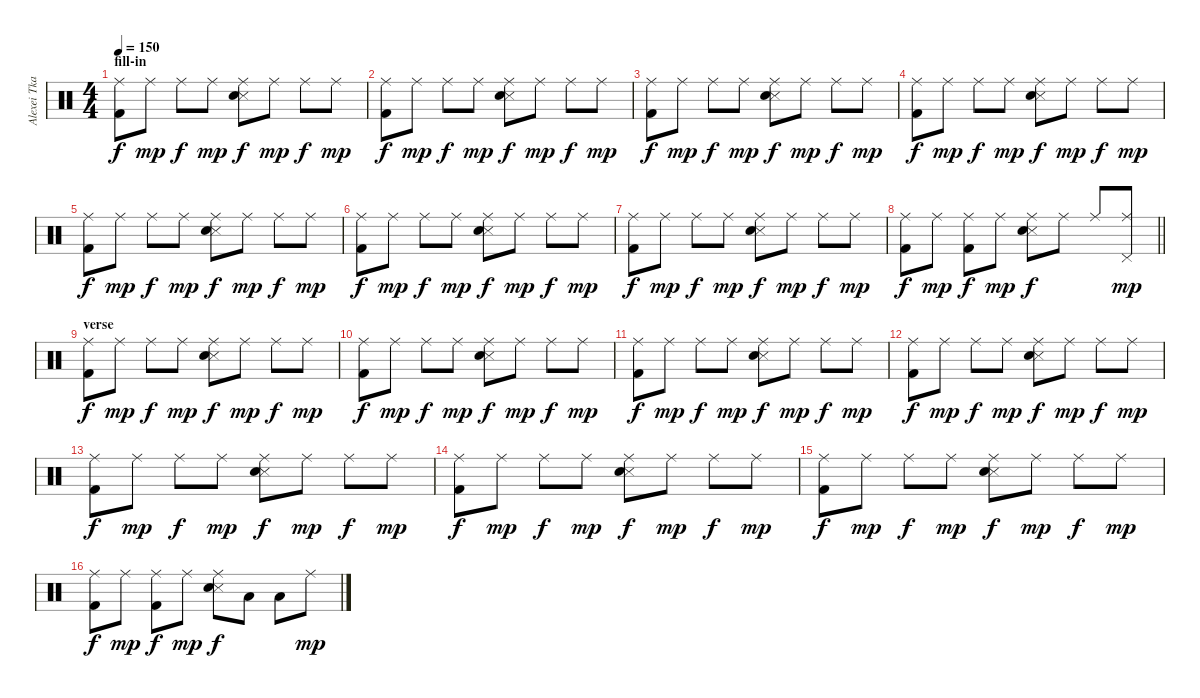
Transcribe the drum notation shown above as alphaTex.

\track ("Alexei Tkachevskiy " "Alexei Tka") {instrument percussion}
\staff {score}
\articulation defaults
\ts (4 4)
\section ("" "fill-in")
\tempo 150
\clef neutral
\ks c
("Ride (middle)" "Kick (hit) 2").8{dy f} "Ride (middle)".8{dy mp} "Ride (middle)".8{dy f} "Ride (middle)".8{dy mp} ("Ride (middle)" "Snare (side stick) 3" "Snare (hit) 2").8{dy f} "Ride (middle)".8{dy mp} "Ride (middle)".8{dy f} "Ride (middle)".8{dy mp} |
("Ride (middle)" "Kick (hit) 2").8{dy f} "Ride (middle)".8{dy mp} "Ride (middle)".8{dy f} "Ride (middle)".8{dy mp} ("Ride (middle)" "Snare (side stick) 3" "Snare (hit) 2").8{dy f} "Ride (middle)".8{dy mp} "Ride (middle)".8{dy f} "Ride (middle)".8{dy mp} |
("Ride (middle)" "Kick (hit) 2").8{dy f} "Ride (middle)".8{dy mp} "Ride (middle)".8{dy f} "Ride (middle)".8{dy mp} ("Ride (middle)" "Snare (side stick) 3" "Snare (hit) 2").8{dy f} "Ride (middle)".8{dy mp} "Ride (middle)".8{dy f} "Ride (middle)".8{dy mp} |
("Ride (middle)" "Kick (hit) 2").8{dy f} "Ride (middle)".8{dy mp} "Ride (middle)".8{dy f} "Ride (middle)".8{dy mp} ("Ride (middle)" "Snare (side stick) 3" "Snare (hit) 2").8{dy f} "Ride (middle)".8{dy mp} "Ride (middle)".8{dy f} "Ride (middle)".8{dy mp} |
("Ride (middle)" "Kick (hit) 2").8{dy f} "Ride (middle)".8{dy mp} "Ride (middle)".8{dy f} "Ride (middle)".8{dy mp} ("Ride (middle)" "Snare (side stick) 3" "Snare (hit) 2").8{dy f} "Ride (middle)".8{dy mp} "Ride (middle)".8{dy f} "Ride (middle)".8{dy mp} |
("Ride (middle)" "Kick (hit) 2").8{dy f} "Ride (middle)".8{dy mp} "Ride (middle)".8{dy f} "Ride (middle)".8{dy mp} ("Ride (middle)" "Snare (side stick) 3" "Snare (hit) 2").8{dy f} "Ride (middle)".8{dy mp} "Ride (middle)".8{dy f} "Ride (middle)".8{dy mp} |
("Ride (middle)" "Kick (hit) 2").8{dy f} "Ride (middle)".8{dy mp} "Ride (middle)".8{dy f} "Ride (middle)".8{dy mp} ("Ride (middle)" "Snare (side stick) 3" "Snare (hit) 2").8{dy f} "Ride (middle)".8{dy mp} "Ride (middle)".8{dy f} "Ride (middle)".8{dy mp} |
\barLineRight lightlight
("Ride (middle)" "Kick (hit) 2").8{dy f} "Ride (middle)".8{dy mp} ("Ride (middle)" "Kick (hit) 2").8{dy f} "Ride (middle)".8{dy mp} ("Ride (middle)" "Snare (side stick) 3" "Snare (hit) 2").8{dy f} "Ride (middle)".8 "Ride (middle)".8 ("Ride (middle)" "Pedal Hi-Hat (hit)").8{dy mp} |
\section ("" "verse")
("Ride (middle)" "Kick (hit) 2").8{dy f} "Ride (middle)".8{dy mp} "Ride (middle)".8{dy f} "Ride (middle)".8{dy mp} ("Ride (middle)" "Snare (side stick) 3" "Snare (hit) 2").8{dy f} "Ride (middle)".8{dy mp} "Ride (middle)".8{dy f} "Ride (middle)".8{dy mp} |
("Ride (middle)" "Kick (hit) 2").8{dy f} "Ride (middle)".8{dy mp} "Ride (middle)".8{dy f} "Ride (middle)".8{dy mp} ("Ride (middle)" "Snare (side stick) 3" "Snare (hit) 2").8{dy f} "Ride (middle)".8{dy mp} "Ride (middle)".8{dy f} "Ride (middle)".8{dy mp} |
("Ride (middle)" "Kick (hit) 2").8{dy f} "Ride (middle)".8{dy mp} "Ride (middle)".8{dy f} "Ride (middle)".8{dy mp} ("Ride (middle)" "Snare (side stick) 3" "Snare (hit) 2").8{dy f} "Ride (middle)".8{dy mp} "Ride (middle)".8{dy f} "Ride (middle)".8{dy mp} |
("Ride (middle)" "Kick (hit) 2").8{dy f} "Ride (middle)".8{dy mp} "Ride (middle)".8{dy f} "Ride (middle)".8{dy mp} ("Ride (middle)" "Snare (side stick) 3" "Snare (hit) 2").8{dy f} "Ride (middle)".8{dy mp} "Ride (middle)".8{dy f} "Ride (middle)".8{dy mp} |
("Ride (middle)" "Kick (hit) 2").8{dy f} "Ride (middle)".8{dy mp} "Ride (middle)".8{dy f} "Ride (middle)".8{dy mp} ("Ride (middle)" "Snare (side stick) 3" "Snare (hit) 2").8{dy f} "Ride (middle)".8{dy mp} "Ride (middle)".8{dy f} "Ride (middle)".8{dy mp} |
("Ride (middle)" "Kick (hit) 2").8{dy f} "Ride (middle)".8{dy mp} "Ride (middle)".8{dy f} "Ride (middle)".8{dy mp} ("Ride (middle)" "Snare (side stick) 3" "Snare (hit) 2").8{dy f} "Ride (middle)".8{dy mp} "Ride (middle)".8{dy f} "Ride (middle)".8{dy mp} |
("Ride (middle)" "Kick (hit) 2").8{dy f} "Ride (middle)".8{dy mp} "Ride (middle)".8{dy f} "Ride (middle)".8{dy mp} ("Ride (middle)" "Snare (side stick) 3" "Snare (hit) 2").8{dy f} "Ride (middle)".8{dy mp} "Ride (middle)".8{dy f} "Ride (middle)".8{dy mp} |
("Ride (middle)" "Kick (hit) 2").8{dy f} "Ride (middle)".8{dy mp} ("Ride (middle)" "Kick (hit) 2").8{dy f} "Ride (middle)".8{dy mp} ("Ride (middle)" "Snare (side stick) 3" "Snare (hit) 2").8{dy f} "Low Tom (hit)".8 "Low Tom (hit)".8 "Ride (middle)".8{dy mp}
